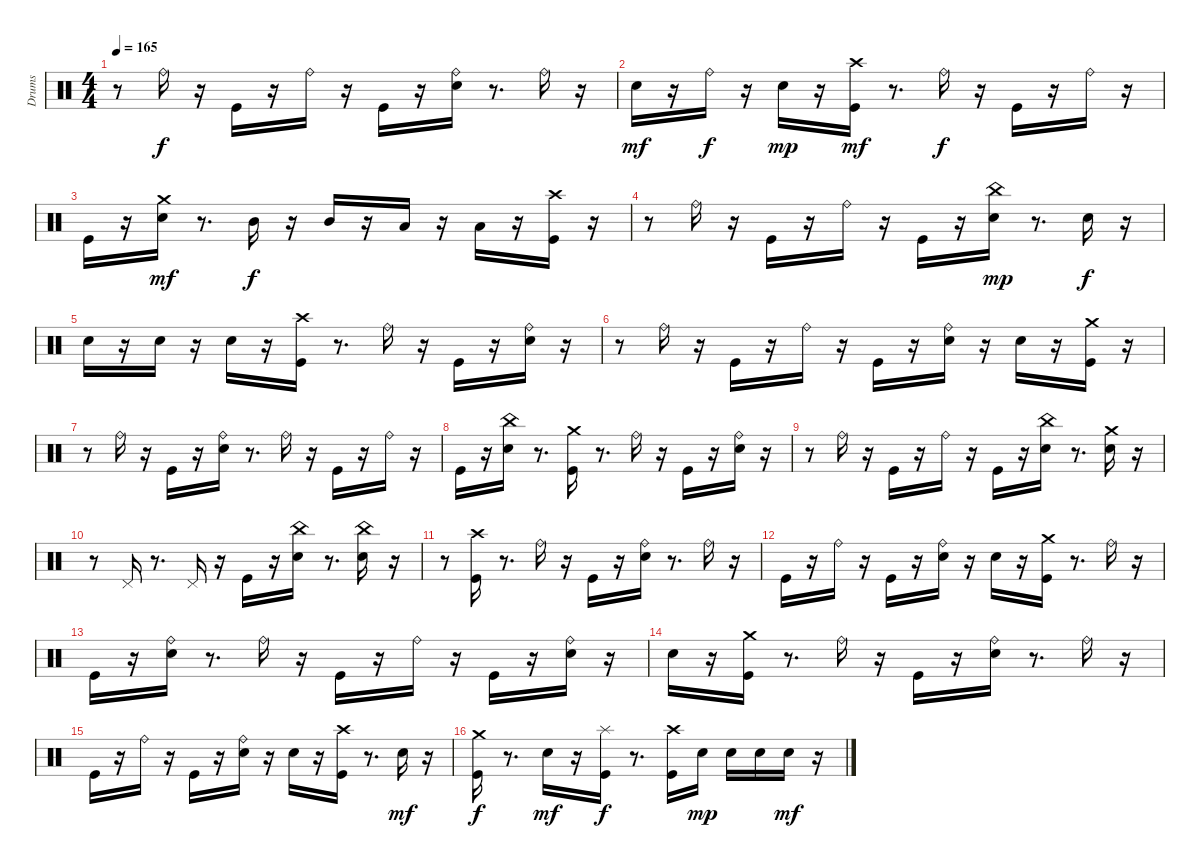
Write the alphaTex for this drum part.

\track ("Drums" "Drums") {instrument percussion}
\staff {score}
\articulation defaults
\ts (4 4)
\tempo 165
\clef neutral
\ks c
r.8{dy f} "Ride (bell)".16 r.16 "Kick (hit)".16 r.16 "Ride (bell)".16 r.16 "Kick (hit)".16 r.16 ("Electric Snare (hit)" "Ride (bell)").16 r.8{d} "Ride (bell)".16 r.16 |
"Electric Snare (hit)".16{dy mf} r.16 "Ride (bell)".16{dy f} r.16 "Electric Snare (hit)".16{dy mp} r.16 ("Kick (hit)" "Crash high (hit)").16{dy mf} r.8{d} "Ride (bell)".16{dy f} r.16 "Kick (hit)".16 r.16 "Ride (bell)".16 r.16 |
"Kick (hit)".16 r.16 ("Electric Snare (hit)" "Crash medium (hit)").16{dy mf} r.8{d} "Mid Tom (hit)".16{dy f} r.16 "Mid Tom (hit)".16 r.16 "Low Tom (hit)".16 r.16 "Low Tom (hit)".16 r.16 ("Kick (hit)" "Crash high (hit)").16 r.16 |
r.8 "Ride (bell)".16 r.16 "Kick (hit)".16 r.16 "Ride (bell)".16 r.16 "Kick (hit)".16 r.16 ("Electric Snare (hit)" "China (hit)").16{dy mp} r.8{d} "Electric Snare (hit)".16{dy f} r.16 |
"Electric Snare (hit)".16 r.16 "Electric Snare (hit)".16 r.16 "Electric Snare (hit)".16 r.16 ("Kick (hit)" "Crash high (hit)").16 r.8{d} "Ride (bell)".16 r.16 "Kick (hit)".16 r.16 ("Electric Snare (hit)" "Ride (bell)").16 r.16 |
r.8 "Ride (bell)".16 r.16 "Kick (hit)".16 r.16 "Ride (bell)".16 r.16 "Kick (hit)".16 r.16 ("Electric Snare (hit)" "Ride (bell)").16 r.16 "Electric Snare (hit)".16 r.16 ("Kick (hit)" "Crash medium (hit)").16 r.16 |
r.8 "Ride (bell)".16 r.16 "Kick (hit)".16 r.16 ("Electric Snare (hit)" "Ride (bell)").16 r.8{d} "Ride (bell)".16 r.16 "Kick (hit)".16 r.16 "Ride (bell)".16 r.16 |
"Kick (hit)".16 r.16 ("Electric Snare (hit)" "China (hit)").16 r.8{d} ("Kick (hit)" "Crash medium (hit)").16 r.8{d} "Ride (bell)".16 r.16 "Kick (hit)".16 r.16 ("Electric Snare (hit)" "Ride (bell)").16 r.16 |
r.8 "Ride (bell)".16 r.16 "Kick (hit)".16 r.16 "Ride (bell)".16 r.16 "Kick (hit)".16 r.16 ("Electric Snare (hit)" "China (hit)").16 r.8{d} ("Crash medium (hit)" "Electric Snare (hit)").16 r.16 |
r.8 "Pedal Hi-Hat (hit)".16 r.8{d} "Pedal Hi-Hat (hit)".16 r.16 "Kick (hit)".16 r.16 ("China (hit)" "Electric Snare (hit)").16 r.8{d} ("China (hit)" "Electric Snare (hit)").16 r.16 |
r.8 ("Kick (hit)" "Crash high (hit)").16 r.8{d} "Ride (bell)".16 r.16 "Kick (hit)".16 r.16 ("Electric Snare (hit)" "Ride (bell)").16 r.8{d} "Ride (bell)".16 r.16 |
"Kick (hit)".16 r.16 "Ride (bell)".16 r.16 "Kick (hit)".16 r.16 ("Electric Snare (hit)" "Ride (bell)").16 r.16 "Electric Snare (hit)".16 r.16 ("Kick (hit)" "Crash medium (hit)").16 r.8{d} "Ride (bell)".16 r.16 |
"Kick (hit)".16 r.16 ("Electric Snare (hit)" "Ride (bell)").16 r.8{d} "Ride (bell)".16 r.16 "Kick (hit)".16 r.16 "Ride (bell)".16 r.16 "Kick (hit)".16 r.16 ("Electric Snare (hit)" "Ride (bell)").16 r.16 |
"Electric Snare (hit)".16 r.16 ("Kick (hit)" "Crash medium (hit)").16 r.8{d} "Ride (bell)".16 r.16 "Kick (hit)".16 r.16 ("Electric Snare (hit)" "Ride (bell)").16 r.8{d} "Ride (bell)".16 r.16 |
"Kick (hit)".16 r.16 "Ride (bell)".16 r.16 "Kick (hit)".16 r.16 ("Electric Snare (hit)" "Ride (bell)").16 r.16 "Electric Snare (hit)".16 r.16 ("Kick (hit)" "Crash high (hit)").16 r.8{d} "Electric Snare (hit)".16{dy mf} r.16 |
("Crash medium (hit)" "Kick (hit)").16{dy f} r.8{d} "Electric Snare (hit)".16{dy mf} r.16 ("Splash (hit)" "Kick (hit)").16{dy f} r.8{d} ("Crash high (hit)" "Kick (hit)").16 "Electric Snare (hit)".16{dy mp} "Electric Snare (hit)".16 "Electric Snare (hit)".16 "Electric Snare (hit)".16{dy mf} r.16
